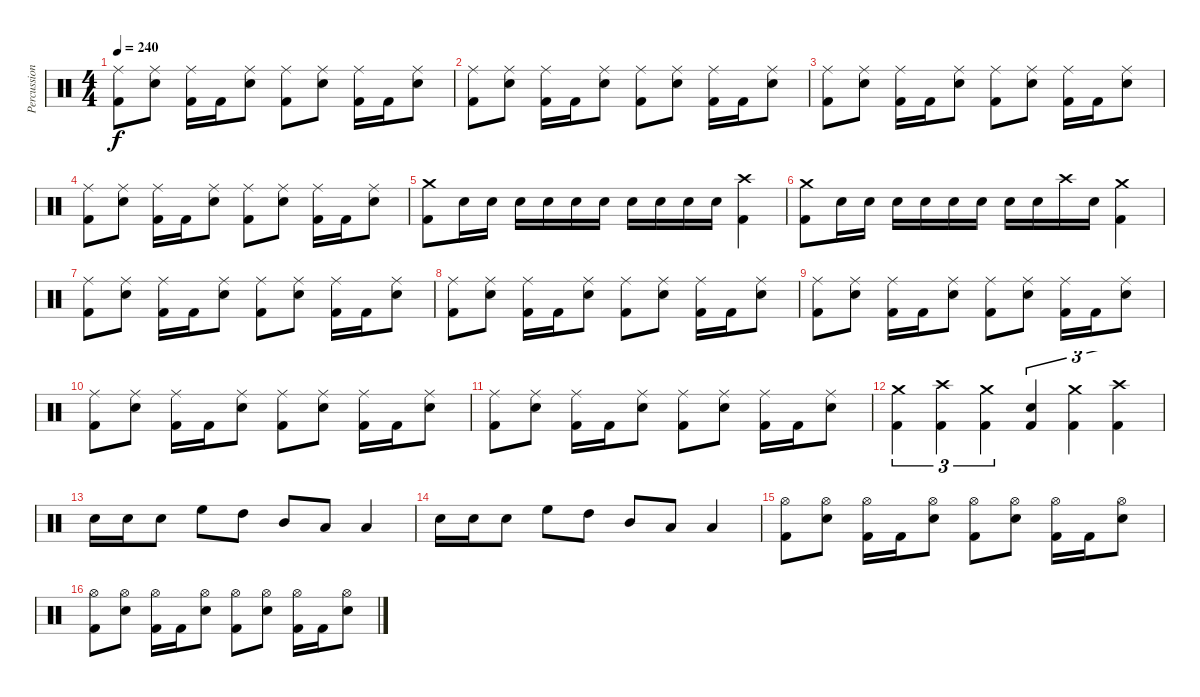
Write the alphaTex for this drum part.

\track ("Percussion" "Percussion") {instrument percussion}
\staff {score}
\articulation defaults
\ts (4 4)
\tempo 240
\clef neutral
\ks c
("Ride (middle)" "Kick (hit) 2").8{dy f} ("Ride (middle)" "Electric Snare (hit)").8 ("Ride (middle)" "Kick (hit) 2").16 "Kick (hit) 2".16 ("Ride (middle)" "Electric Snare (hit)").8 ("Ride (middle)" "Kick (hit) 2").8 ("Ride (middle)" "Electric Snare (hit)").8 ("Ride (middle)" "Kick (hit) 2").16 "Kick (hit) 2".16 ("Ride (middle)" "Electric Snare (hit)").8 |
("Ride (middle)" "Kick (hit) 2").8 ("Ride (middle)" "Electric Snare (hit)").8 ("Ride (middle)" "Kick (hit) 2").16 "Kick (hit) 2".16 ("Ride (middle)" "Electric Snare (hit)").8 ("Ride (middle)" "Kick (hit) 2").8 ("Ride (middle)" "Electric Snare (hit)").8 ("Ride (middle)" "Kick (hit) 2").16 "Kick (hit) 2".16 ("Ride (middle)" "Electric Snare (hit)").8 |
("Ride (middle)" "Kick (hit) 2").8 ("Ride (middle)" "Electric Snare (hit)").8 ("Ride (middle)" "Kick (hit) 2").16 "Kick (hit) 2".16 ("Ride (middle)" "Electric Snare (hit)").8 ("Ride (middle)" "Kick (hit) 2").8 ("Ride (middle)" "Electric Snare (hit)").8 ("Ride (middle)" "Kick (hit) 2").16 "Kick (hit) 2".16 ("Ride (middle)" "Electric Snare (hit)").8 |
("Ride (middle)" "Kick (hit) 2").8 ("Ride (middle)" "Electric Snare (hit)").8 ("Ride (middle)" "Kick (hit) 2").16 "Kick (hit) 2".16 ("Ride (middle)" "Electric Snare (hit)").8 ("Ride (middle)" "Kick (hit) 2").8 ("Ride (middle)" "Electric Snare (hit)").8 ("Ride (middle)" "Kick (hit) 2").16 "Kick (hit) 2".16 ("Ride (middle)" "Electric Snare (hit)").8 |
("Crash medium (hit)" "Kick (hit) 2").8 "Electric Snare (hit)".16 "Electric Snare (hit)".16 "Electric Snare (hit)".16 "Electric Snare (hit)".16 "Electric Snare (hit)".16 "Electric Snare (hit)".16 "Electric Snare (hit)".16 "Electric Snare (hit)".16 "Electric Snare (hit)".16 "Electric Snare (hit)".16 ("Crash high (hit)" "Kick (hit) 2").4 |
("Crash medium (hit)" "Kick (hit) 2").8 "Electric Snare (hit)".16 "Electric Snare (hit)".16 "Electric Snare (hit)".16 "Electric Snare (hit)".16 "Electric Snare (hit)".16 "Electric Snare (hit)".16 "Electric Snare (hit)".16 "Electric Snare (hit)".16 "Crash high (hit)".16 "Electric Snare (hit)".16 ("Crash medium (hit)" "Kick (hit) 2").4 |
("Ride (middle)" "Kick (hit) 2").8 ("Ride (middle)" "Electric Snare (hit)").8 ("Ride (middle)" "Kick (hit) 2").16 "Kick (hit) 2".16 ("Ride (middle)" "Electric Snare (hit)").8 ("Ride (middle)" "Kick (hit) 2").8 ("Ride (middle)" "Electric Snare (hit)").8 ("Ride (middle)" "Kick (hit) 2").16 "Kick (hit) 2".16 ("Ride (middle)" "Electric Snare (hit)").8 |
("Ride (middle)" "Kick (hit) 2").8 ("Ride (middle)" "Electric Snare (hit)").8 ("Ride (middle)" "Kick (hit) 2").16 "Kick (hit) 2".16 ("Ride (middle)" "Electric Snare (hit)").8 ("Ride (middle)" "Kick (hit) 2").8 ("Ride (middle)" "Electric Snare (hit)").8 ("Ride (middle)" "Kick (hit) 2").16 "Kick (hit) 2".16 ("Ride (middle)" "Electric Snare (hit)").8 |
("Ride (middle)" "Kick (hit) 2").8 ("Ride (middle)" "Electric Snare (hit)").8 ("Ride (middle)" "Kick (hit) 2").16 "Kick (hit) 2".16 ("Ride (middle)" "Electric Snare (hit)").8 ("Ride (middle)" "Kick (hit) 2").8 ("Ride (middle)" "Electric Snare (hit)").8 ("Ride (middle)" "Kick (hit) 2").16 "Kick (hit) 2".16 ("Ride (middle)" "Electric Snare (hit)").8 |
("Ride (middle)" "Kick (hit) 2").8 ("Ride (middle)" "Electric Snare (hit)").8 ("Ride (middle)" "Kick (hit) 2").16 "Kick (hit) 2".16 ("Ride (middle)" "Electric Snare (hit)").8 ("Ride (middle)" "Kick (hit) 2").8 ("Ride (middle)" "Electric Snare (hit)").8 ("Ride (middle)" "Kick (hit) 2").16 "Kick (hit) 2".16 ("Ride (middle)" "Electric Snare (hit)").8 |
("Ride (middle)" "Kick (hit) 2").8 ("Ride (middle)" "Electric Snare (hit)").8 ("Ride (middle)" "Kick (hit) 2").16 "Kick (hit) 2".16 ("Ride (middle)" "Electric Snare (hit)").8 ("Ride (middle)" "Kick (hit) 2").8 ("Ride (middle)" "Electric Snare (hit)").8 ("Ride (middle)" "Kick (hit) 2").16 "Kick (hit) 2".16 ("Ride (middle)" "Electric Snare (hit)").8 |
("Crash medium (hit)" "Kick (hit) 2").4{tu (3 2)} ("Crash high (hit)" "Kick (hit) 2").4{tu (3 2)} ("Crash medium (hit)" "Kick (hit) 2").4{tu (3 2)} ("Electric Snare (hit)" "Kick (hit) 2").4{tu (3 2)} ("Crash medium (hit)" "Kick (hit) 2").4{tu (3 2)} ("Crash high (hit)" "Kick (hit) 2").4{tu (3 2)} |
"Electric Snare (hit)".16 "Electric Snare (hit)".16 "Electric Snare (hit)".8 "High Floor Tom (hit)".8 "High Tom (hit)".8 "Mid Tom (hit)".8 "Low Tom (hit)".8 "Low Floor Tom (hit)".4 |
"Electric Snare (hit)".16 "Electric Snare (hit)".16 "Electric Snare (hit)".8 "High Floor Tom (hit)".8 "High Tom (hit)".8 "Mid Tom (hit)".8 "Low Tom (hit)".8 "Low Floor Tom (hit)".4 |
("Hi-Hat (open)" "Kick (hit) 2").8 ("Hi-Hat (open)" "Electric Snare (hit)").8 ("Hi-Hat (open)" "Kick (hit) 2").16 "Kick (hit) 2".16 ("Hi-Hat (open)" "Electric Snare (hit)").8 ("Hi-Hat (open)" "Kick (hit) 2").8 ("Hi-Hat (open)" "Electric Snare (hit)").8 ("Hi-Hat (open)" "Kick (hit) 2").16 "Kick (hit) 2".16 ("Hi-Hat (open)" "Electric Snare (hit)").8 |
("Hi-Hat (open)" "Kick (hit) 2").8 ("Hi-Hat (open)" "Electric Snare (hit)").8 ("Hi-Hat (open)" "Kick (hit) 2").16 "Kick (hit) 2".16 ("Hi-Hat (open)" "Electric Snare (hit)").8 ("Hi-Hat (open)" "Kick (hit) 2").8 ("Hi-Hat (open)" "Electric Snare (hit)").8 ("Hi-Hat (open)" "Kick (hit) 2").16 "Kick (hit) 2".16 ("Hi-Hat (open)" "Electric Snare (hit)").8
